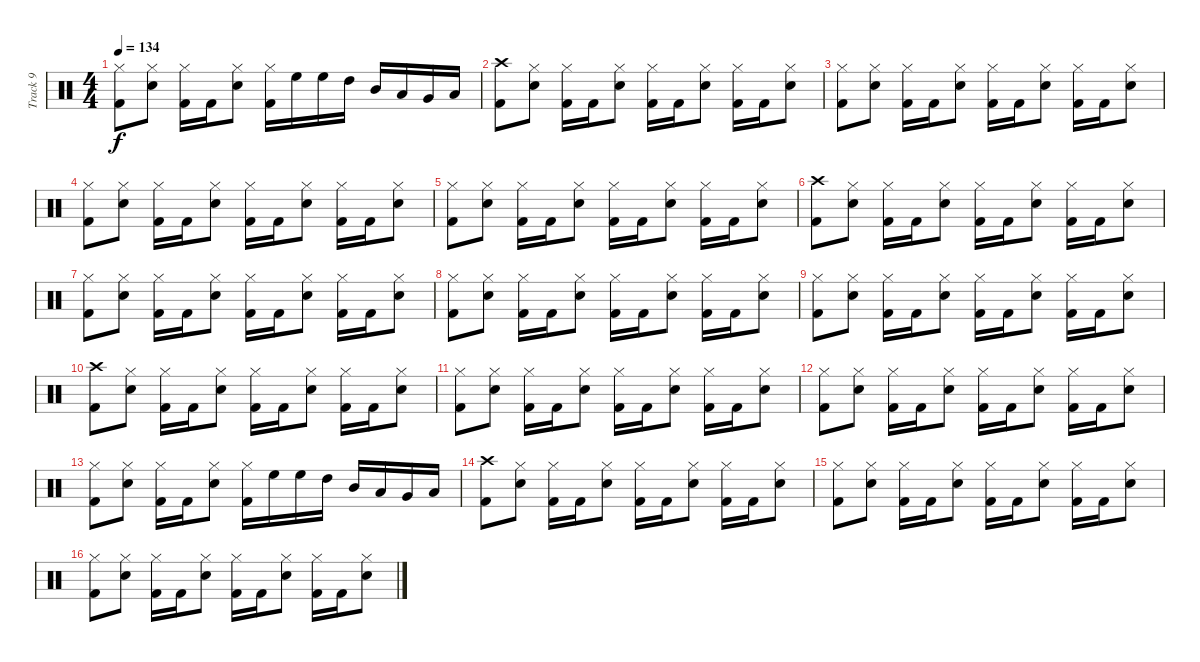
\track ("Track 9" "Track 9") {instrument percussion}
\staff {score}
\articulation defaults
\ts (4 4)
\tempo 134
\clef neutral
\ks c
("Hi-Hat (closed)" "Kick (hit) 2").8{dy f} ("Hi-Hat (closed)" "Snare (hit) 2").8 ("Hi-Hat (closed)" "Kick (hit) 2").16 "Kick (hit) 2".16 ("Hi-Hat (closed)" "Snare (hit) 2").8 ("Hi-Hat (closed)" "Kick (hit) 2").16 "High Floor Tom (hit)".16 "High Floor Tom (hit)".16 "High Tom (hit)".16 "Mid Tom (hit)".16 "Low Tom (hit)".16 "Very Low Tom (hit)".16 "Low Floor Tom (hit)".16 |
("Crash high (hit)" "Kick (hit) 2").8 ("Hi-Hat (closed)" "Snare (hit) 2").8 ("Hi-Hat (closed)" "Kick (hit) 2").16 "Kick (hit) 2".16 ("Hi-Hat (closed)" "Snare (hit) 2").8 ("Hi-Hat (closed)" "Kick (hit) 2").16 "Kick (hit) 2".16 ("Hi-Hat (closed)" "Snare (hit) 2").8 ("Hi-Hat (closed)" "Kick (hit) 2").16 "Kick (hit) 2".16 ("Hi-Hat (closed)" "Snare (hit) 2").8 |
("Hi-Hat (closed)" "Kick (hit) 2").8 ("Hi-Hat (closed)" "Snare (hit) 2").8 ("Hi-Hat (closed)" "Kick (hit) 2").16 "Kick (hit) 2".16 ("Hi-Hat (closed)" "Snare (hit) 2").8 ("Hi-Hat (closed)" "Kick (hit) 2").16 "Kick (hit) 2".16 ("Hi-Hat (closed)" "Snare (hit) 2").8 ("Hi-Hat (closed)" "Kick (hit) 2").16 "Kick (hit) 2".16 ("Hi-Hat (closed)" "Snare (hit) 2").8 |
("Hi-Hat (closed)" "Kick (hit) 2").8 ("Hi-Hat (closed)" "Snare (hit) 2").8 ("Hi-Hat (closed)" "Kick (hit) 2").16 "Kick (hit) 2".16 ("Hi-Hat (closed)" "Snare (hit) 2").8 ("Hi-Hat (closed)" "Kick (hit) 2").16 "Kick (hit) 2".16 ("Hi-Hat (closed)" "Snare (hit) 2").8 ("Hi-Hat (closed)" "Kick (hit) 2").16 "Kick (hit) 2".16 ("Hi-Hat (closed)" "Snare (hit) 2").8 |
("Hi-Hat (closed)" "Kick (hit) 2").8 ("Hi-Hat (closed)" "Snare (hit) 2").8 ("Hi-Hat (closed)" "Kick (hit) 2").16 "Kick (hit) 2".16 ("Hi-Hat (closed)" "Snare (hit) 2").8 ("Hi-Hat (closed)" "Kick (hit) 2").16 "Kick (hit) 2".16 ("Hi-Hat (closed)" "Snare (hit) 2").8 ("Hi-Hat (closed)" "Kick (hit) 2").16 "Kick (hit) 2".16 ("Hi-Hat (closed)" "Snare (hit) 2").8 |
("Crash high (hit)" "Kick (hit) 2").8 ("Hi-Hat (closed)" "Snare (hit) 2").8 ("Hi-Hat (closed)" "Kick (hit) 2").16 "Kick (hit) 2".16 ("Hi-Hat (closed)" "Snare (hit) 2").8 ("Hi-Hat (closed)" "Kick (hit) 2").16 "Kick (hit) 2".16 ("Hi-Hat (closed)" "Snare (hit) 2").8 ("Hi-Hat (closed)" "Kick (hit) 2").16 "Kick (hit) 2".16 ("Hi-Hat (closed)" "Snare (hit) 2").8 |
("Hi-Hat (closed)" "Kick (hit) 2").8 ("Hi-Hat (closed)" "Snare (hit) 2").8 ("Hi-Hat (closed)" "Kick (hit) 2").16 "Kick (hit) 2".16 ("Hi-Hat (closed)" "Snare (hit) 2").8 ("Hi-Hat (closed)" "Kick (hit) 2").16 "Kick (hit) 2".16 ("Hi-Hat (closed)" "Snare (hit) 2").8 ("Hi-Hat (closed)" "Kick (hit) 2").16 "Kick (hit) 2".16 ("Hi-Hat (closed)" "Snare (hit) 2").8 |
("Hi-Hat (closed)" "Kick (hit) 2").8 ("Hi-Hat (closed)" "Snare (hit) 2").8 ("Hi-Hat (closed)" "Kick (hit) 2").16 "Kick (hit) 2".16 ("Hi-Hat (closed)" "Snare (hit) 2").8 ("Hi-Hat (closed)" "Kick (hit) 2").16 "Kick (hit) 2".16 ("Hi-Hat (closed)" "Snare (hit) 2").8 ("Hi-Hat (closed)" "Kick (hit) 2").16 "Kick (hit) 2".16 ("Hi-Hat (closed)" "Snare (hit) 2").8 |
("Hi-Hat (closed)" "Kick (hit) 2").8 ("Hi-Hat (closed)" "Snare (hit) 2").8 ("Hi-Hat (closed)" "Kick (hit) 2").16 "Kick (hit) 2".16 ("Hi-Hat (closed)" "Snare (hit) 2").8 ("Hi-Hat (closed)" "Kick (hit) 2").16 "Kick (hit) 2".16 ("Hi-Hat (closed)" "Snare (hit) 2").8 ("Hi-Hat (closed)" "Kick (hit) 2").16 "Kick (hit) 2".16 ("Hi-Hat (closed)" "Snare (hit) 2").8 |
("Crash high (hit)" "Kick (hit) 2").8 ("Hi-Hat (closed)" "Snare (hit) 2").8 ("Hi-Hat (closed)" "Kick (hit) 2").16 "Kick (hit) 2".16 ("Hi-Hat (closed)" "Snare (hit) 2").8 ("Hi-Hat (closed)" "Kick (hit) 2").16 "Kick (hit) 2".16 ("Hi-Hat (closed)" "Snare (hit) 2").8 ("Hi-Hat (closed)" "Kick (hit) 2").16 "Kick (hit) 2".16 ("Hi-Hat (closed)" "Snare (hit) 2").8 |
("Hi-Hat (closed)" "Kick (hit) 2").8 ("Hi-Hat (closed)" "Snare (hit) 2").8 ("Hi-Hat (closed)" "Kick (hit) 2").16 "Kick (hit) 2".16 ("Hi-Hat (closed)" "Snare (hit) 2").8 ("Hi-Hat (closed)" "Kick (hit) 2").16 "Kick (hit) 2".16 ("Hi-Hat (closed)" "Snare (hit) 2").8 ("Hi-Hat (closed)" "Kick (hit) 2").16 "Kick (hit) 2".16 ("Hi-Hat (closed)" "Snare (hit) 2").8 |
("Hi-Hat (closed)" "Kick (hit) 2").8 ("Hi-Hat (closed)" "Snare (hit) 2").8 ("Hi-Hat (closed)" "Kick (hit) 2").16 "Kick (hit) 2".16 ("Hi-Hat (closed)" "Snare (hit) 2").8 ("Hi-Hat (closed)" "Kick (hit) 2").16 "Kick (hit) 2".16 ("Hi-Hat (closed)" "Snare (hit) 2").8 ("Hi-Hat (closed)" "Kick (hit) 2").16 "Kick (hit) 2".16 ("Hi-Hat (closed)" "Snare (hit) 2").8 |
("Hi-Hat (closed)" "Kick (hit) 2").8 ("Hi-Hat (closed)" "Snare (hit) 2").8 ("Hi-Hat (closed)" "Kick (hit) 2").16 "Kick (hit) 2".16 ("Hi-Hat (closed)" "Snare (hit) 2").8 ("Hi-Hat (closed)" "Kick (hit) 2").16 "High Floor Tom (hit)".16 "High Floor Tom (hit)".16 "High Tom (hit)".16 "Mid Tom (hit)".16 "Low Tom (hit)".16 "Very Low Tom (hit)".16 "Low Floor Tom (hit)".16 |
("Crash high (hit)" "Kick (hit) 2").8 ("Hi-Hat (closed)" "Snare (hit) 2").8 ("Hi-Hat (closed)" "Kick (hit) 2").16 "Kick (hit) 2".16 ("Hi-Hat (closed)" "Snare (hit) 2").8 ("Hi-Hat (closed)" "Kick (hit) 2").16 "Kick (hit) 2".16 ("Hi-Hat (closed)" "Snare (hit) 2").8 ("Hi-Hat (closed)" "Kick (hit) 2").16 "Kick (hit) 2".16 ("Hi-Hat (closed)" "Snare (hit) 2").8 |
("Hi-Hat (closed)" "Kick (hit) 2").8 ("Hi-Hat (closed)" "Snare (hit) 2").8 ("Hi-Hat (closed)" "Kick (hit) 2").16 "Kick (hit) 2".16 ("Hi-Hat (closed)" "Snare (hit) 2").8 ("Hi-Hat (closed)" "Kick (hit) 2").16 "Kick (hit) 2".16 ("Hi-Hat (closed)" "Snare (hit) 2").8 ("Hi-Hat (closed)" "Kick (hit) 2").16 "Kick (hit) 2".16 ("Hi-Hat (closed)" "Snare (hit) 2").8 |
("Hi-Hat (closed)" "Kick (hit) 2").8 ("Hi-Hat (closed)" "Snare (hit) 2").8 ("Hi-Hat (closed)" "Kick (hit) 2").16 "Kick (hit) 2".16 ("Hi-Hat (closed)" "Snare (hit) 2").8 ("Hi-Hat (closed)" "Kick (hit) 2").16 "Kick (hit) 2".16 ("Hi-Hat (closed)" "Snare (hit) 2").8 ("Hi-Hat (closed)" "Kick (hit) 2").16 "Kick (hit) 2".16 ("Hi-Hat (closed)" "Snare (hit) 2").8
